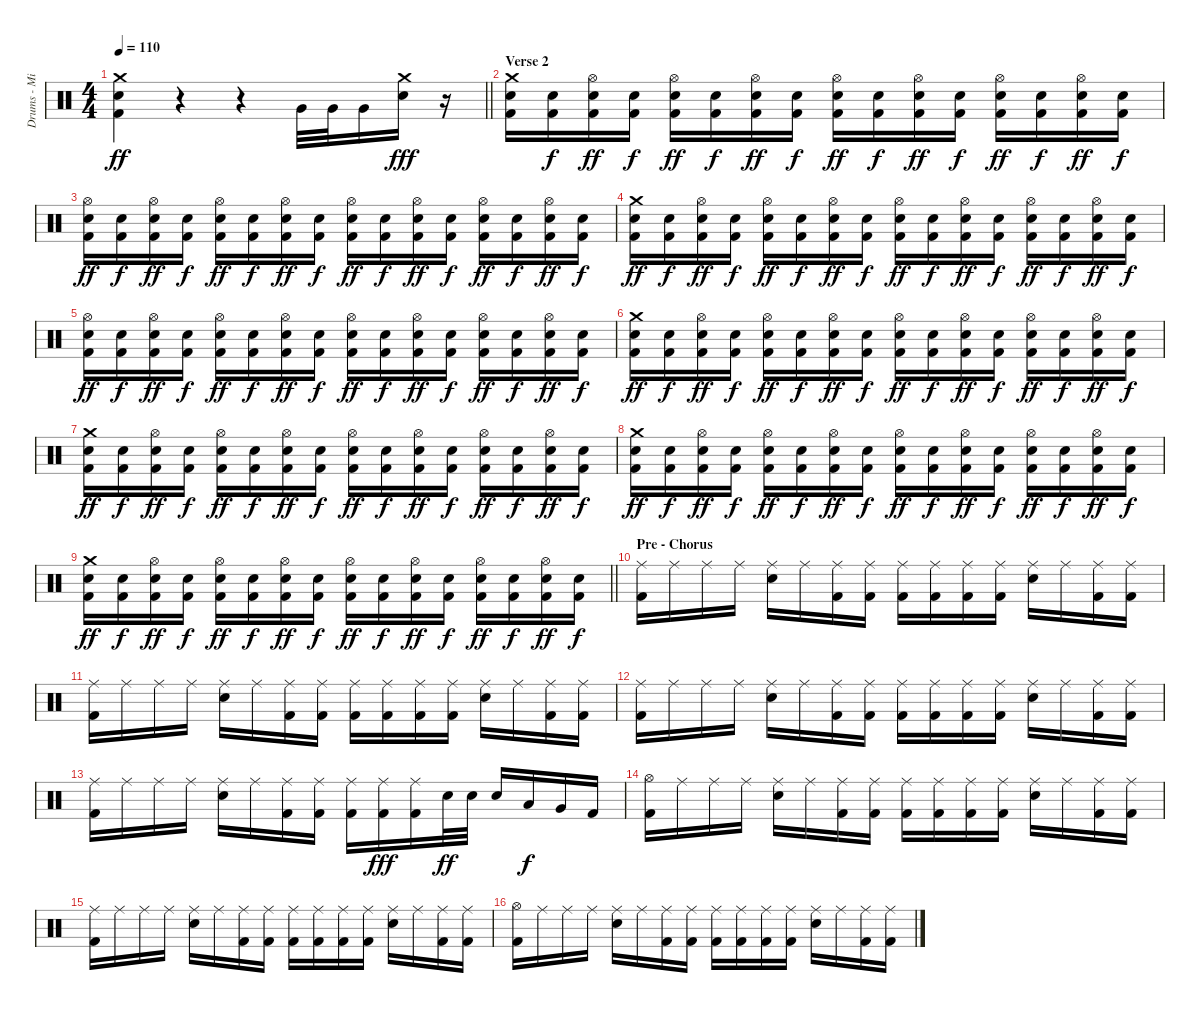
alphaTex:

\track ("Drums - Mikko" "Drums - Mi") {instrument percussion}
\staff {score}
\articulation defaults
\ts (4 4)
\tempo 110
\clef neutral
\barLineRight lightlight
\ks c
("Crash medium (hit)" "Snare (hit) 2" "Kick (hit) 2").4{dy ff} r.4 r.4 "Very Low Tom (hit)".32 "Very Low Tom (hit)".32 "Very Low Tom (hit)".16 ("Crash medium (hit)" "Snare (hit) 2").16{dy fff} r.16 |
\section ("" "Verse 2")
("Crash medium (hit)" "Snare (hit) 2" "Kick (hit) 2").16{volume 11} ("Snare (hit) 2" "Kick (hit) 2").16{dy f} ("Hi-Hat (open)" "Snare (hit) 2" "Kick (hit) 2").16{dy ff} ("Snare (hit) 2" "Kick (hit) 2").16{dy f} ("Hi-Hat (open)" "Snare (hit) 2" "Kick (hit) 2").16{dy ff} ("Snare (hit) 2" "Kick (hit) 2").16{dy f} ("Hi-Hat (open)" "Snare (hit) 2" "Kick (hit) 2").16{dy ff} ("Snare (hit) 2" "Kick (hit) 2").16{dy f} ("Hi-Hat (open)" "Snare (hit) 2" "Kick (hit) 2").16{dy ff} ("Snare (hit) 2" "Kick (hit) 2").16{dy f} ("Hi-Hat (open)" "Snare (hit) 2" "Kick (hit) 2").16{dy ff} ("Snare (hit) 2" "Kick (hit) 2").16{dy f} ("Hi-Hat (open)" "Snare (hit) 2" "Kick (hit) 2").16{dy ff} ("Snare (hit) 2" "Kick (hit) 2").16{dy f} ("Hi-Hat (open)" "Snare (hit) 2" "Kick (hit) 2").16{dy ff} ("Snare (hit) 2" "Kick (hit) 2").16{dy f} |
("Hi-Hat (open)" "Snare (hit) 2" "Kick (hit) 2").16{dy ff volume 11} ("Snare (hit) 2" "Kick (hit) 2").16{dy f} ("Hi-Hat (open)" "Snare (hit) 2" "Kick (hit) 2").16{dy ff} ("Snare (hit) 2" "Kick (hit) 2").16{dy f} ("Hi-Hat (open)" "Snare (hit) 2" "Kick (hit) 2").16{dy ff} ("Snare (hit) 2" "Kick (hit) 2").16{dy f} ("Hi-Hat (open)" "Snare (hit) 2" "Kick (hit) 2").16{dy ff} ("Snare (hit) 2" "Kick (hit) 2").16{dy f} ("Hi-Hat (open)" "Snare (hit) 2" "Kick (hit) 2").16{dy ff} ("Snare (hit) 2" "Kick (hit) 2").16{dy f} ("Hi-Hat (open)" "Snare (hit) 2" "Kick (hit) 2").16{dy ff} ("Snare (hit) 2" "Kick (hit) 2").16{dy f} ("Hi-Hat (open)" "Snare (hit) 2" "Kick (hit) 2").16{dy ff} ("Snare (hit) 2" "Kick (hit) 2").16{dy f} ("Hi-Hat (open)" "Snare (hit) 2" "Kick (hit) 2").16{dy ff} ("Snare (hit) 2" "Kick (hit) 2").16{dy f} |
("Crash medium (hit)" "Snare (hit) 2" "Kick (hit) 2").16{dy ff volume 11} ("Snare (hit) 2" "Kick (hit) 2").16{dy f} ("Hi-Hat (open)" "Snare (hit) 2" "Kick (hit) 2").16{dy ff} ("Snare (hit) 2" "Kick (hit) 2").16{dy f} ("Hi-Hat (open)" "Snare (hit) 2" "Kick (hit) 2").16{dy ff} ("Snare (hit) 2" "Kick (hit) 2").16{dy f} ("Hi-Hat (open)" "Snare (hit) 2" "Kick (hit) 2").16{dy ff} ("Snare (hit) 2" "Kick (hit) 2").16{dy f} ("Hi-Hat (open)" "Snare (hit) 2" "Kick (hit) 2").16{dy ff} ("Snare (hit) 2" "Kick (hit) 2").16{dy f} ("Hi-Hat (open)" "Snare (hit) 2" "Kick (hit) 2").16{dy ff} ("Snare (hit) 2" "Kick (hit) 2").16{dy f} ("Hi-Hat (open)" "Snare (hit) 2" "Kick (hit) 2").16{dy ff} ("Snare (hit) 2" "Kick (hit) 2").16{dy f} ("Hi-Hat (open)" "Snare (hit) 2" "Kick (hit) 2").16{dy ff} ("Snare (hit) 2" "Kick (hit) 2").16{dy f} |
("Hi-Hat (open)" "Snare (hit) 2" "Kick (hit) 2").16{dy ff volume 11} ("Snare (hit) 2" "Kick (hit) 2").16{dy f} ("Hi-Hat (open)" "Snare (hit) 2" "Kick (hit) 2").16{dy ff} ("Snare (hit) 2" "Kick (hit) 2").16{dy f} ("Hi-Hat (open)" "Snare (hit) 2" "Kick (hit) 2").16{dy ff} ("Snare (hit) 2" "Kick (hit) 2").16{dy f} ("Hi-Hat (open)" "Snare (hit) 2" "Kick (hit) 2").16{dy ff} ("Snare (hit) 2" "Kick (hit) 2").16{dy f} ("Hi-Hat (open)" "Snare (hit) 2" "Kick (hit) 2").16{dy ff} ("Snare (hit) 2" "Kick (hit) 2").16{dy f} ("Hi-Hat (open)" "Snare (hit) 2" "Kick (hit) 2").16{dy ff} ("Snare (hit) 2" "Kick (hit) 2").16{dy f} ("Hi-Hat (open)" "Snare (hit) 2" "Kick (hit) 2").16{dy ff} ("Snare (hit) 2" "Kick (hit) 2").16{dy f} ("Hi-Hat (open)" "Snare (hit) 2" "Kick (hit) 2").16{dy ff} ("Snare (hit) 2" "Kick (hit) 2").16{dy f} |
("Crash medium (hit)" "Snare (hit) 2" "Kick (hit) 2").16{dy ff volume 11} ("Snare (hit) 2" "Kick (hit) 2").16{dy f} ("Hi-Hat (open)" "Snare (hit) 2" "Kick (hit) 2").16{dy ff} ("Snare (hit) 2" "Kick (hit) 2").16{dy f} ("Hi-Hat (open)" "Snare (hit) 2" "Kick (hit) 2").16{dy ff} ("Snare (hit) 2" "Kick (hit) 2").16{dy f} ("Hi-Hat (open)" "Snare (hit) 2" "Kick (hit) 2").16{dy ff} ("Snare (hit) 2" "Kick (hit) 2").16{dy f} ("Hi-Hat (open)" "Snare (hit) 2" "Kick (hit) 2").16{dy ff} ("Snare (hit) 2" "Kick (hit) 2").16{dy f} ("Hi-Hat (open)" "Snare (hit) 2" "Kick (hit) 2").16{dy ff} ("Snare (hit) 2" "Kick (hit) 2").16{dy f} ("Hi-Hat (open)" "Snare (hit) 2" "Kick (hit) 2").16{dy ff} ("Snare (hit) 2" "Kick (hit) 2").16{dy f} ("Hi-Hat (open)" "Snare (hit) 2" "Kick (hit) 2").16{dy ff} ("Snare (hit) 2" "Kick (hit) 2").16{dy f} |
("Crash medium (hit)" "Snare (hit) 2" "Kick (hit) 2").16{dy ff volume 11} ("Snare (hit) 2" "Kick (hit) 2").16{dy f} ("Hi-Hat (open)" "Snare (hit) 2" "Kick (hit) 2").16{dy ff} ("Snare (hit) 2" "Kick (hit) 2").16{dy f} ("Hi-Hat (open)" "Snare (hit) 2" "Kick (hit) 2").16{dy ff} ("Snare (hit) 2" "Kick (hit) 2").16{dy f} ("Hi-Hat (open)" "Snare (hit) 2" "Kick (hit) 2").16{dy ff} ("Snare (hit) 2" "Kick (hit) 2").16{dy f} ("Hi-Hat (open)" "Snare (hit) 2" "Kick (hit) 2").16{dy ff} ("Snare (hit) 2" "Kick (hit) 2").16{dy f} ("Hi-Hat (open)" "Snare (hit) 2" "Kick (hit) 2").16{dy ff} ("Snare (hit) 2" "Kick (hit) 2").16{dy f} ("Hi-Hat (open)" "Snare (hit) 2" "Kick (hit) 2").16{dy ff} ("Snare (hit) 2" "Kick (hit) 2").16{dy f} ("Hi-Hat (open)" "Snare (hit) 2" "Kick (hit) 2").16{dy ff} ("Snare (hit) 2" "Kick (hit) 2").16{dy f} |
("Crash medium (hit)" "Snare (hit) 2" "Kick (hit) 2").16{dy ff volume 11} ("Snare (hit) 2" "Kick (hit) 2").16{dy f} ("Hi-Hat (open)" "Snare (hit) 2" "Kick (hit) 2").16{dy ff} ("Snare (hit) 2" "Kick (hit) 2").16{dy f} ("Hi-Hat (open)" "Snare (hit) 2" "Kick (hit) 2").16{dy ff} ("Snare (hit) 2" "Kick (hit) 2").16{dy f} ("Hi-Hat (open)" "Snare (hit) 2" "Kick (hit) 2").16{dy ff} ("Snare (hit) 2" "Kick (hit) 2").16{dy f} ("Hi-Hat (open)" "Snare (hit) 2" "Kick (hit) 2").16{dy ff} ("Snare (hit) 2" "Kick (hit) 2").16{dy f} ("Hi-Hat (open)" "Snare (hit) 2" "Kick (hit) 2").16{dy ff} ("Snare (hit) 2" "Kick (hit) 2").16{dy f} ("Hi-Hat (open)" "Snare (hit) 2" "Kick (hit) 2").16{dy ff} ("Snare (hit) 2" "Kick (hit) 2").16{dy f} ("Hi-Hat (open)" "Snare (hit) 2" "Kick (hit) 2").16{dy ff} ("Snare (hit) 2" "Kick (hit) 2").16{dy f} |
\barLineRight lightlight
("Crash medium (hit)" "Snare (hit) 2" "Kick (hit) 2").16{dy ff volume 11} ("Snare (hit) 2" "Kick (hit) 2").16{dy f} ("Hi-Hat (open)" "Snare (hit) 2" "Kick (hit) 2").16{dy ff} ("Snare (hit) 2" "Kick (hit) 2").16{dy f} ("Hi-Hat (open)" "Snare (hit) 2" "Kick (hit) 2").16{dy ff} ("Snare (hit) 2" "Kick (hit) 2").16{dy f} ("Hi-Hat (open)" "Snare (hit) 2" "Kick (hit) 2").16{dy ff} ("Snare (hit) 2" "Kick (hit) 2").16{dy f} ("Hi-Hat (open)" "Snare (hit) 2" "Kick (hit) 2").16{dy ff} ("Snare (hit) 2" "Kick (hit) 2").16{dy f} ("Hi-Hat (open)" "Snare (hit) 2" "Kick (hit) 2").16{dy ff} ("Snare (hit) 2" "Kick (hit) 2").16{dy f} ("Hi-Hat (open)" "Snare (hit) 2" "Kick (hit) 2").16{dy ff} ("Snare (hit) 2" "Kick (hit) 2").16{dy f} ("Hi-Hat (open)" "Snare (hit) 2" "Kick (hit) 2").16{dy ff} ("Snare (hit) 2" "Kick (hit) 2").16{dy f} |
\section ("" "Pre - Chorus")
("Ride (middle)" "Kick (hit) 2").16{volume 13} "Ride (middle)".16 "Ride (middle)".16 "Ride (middle)".16 ("Ride (middle)" "Snare (hit) 2").16 "Ride (middle)".16 ("Ride (middle)" "Kick (hit) 2").16 ("Ride (middle)" "Kick (hit) 2").16 ("Ride (middle)" "Kick (hit) 2").16 ("Ride (middle)" "Kick (hit) 2").16 ("Ride (middle)" "Kick (hit) 2").16 ("Ride (middle)" "Kick (hit) 2").16 ("Ride (middle)" "Snare (hit) 2").16 "Ride (middle)".16 ("Ride (middle)" "Kick (hit) 2").16 ("Ride (middle)" "Kick (hit) 2").16 |
("Ride (middle)" "Kick (hit) 2").16{volume 13} "Ride (middle)".16 "Ride (middle)".16 "Ride (middle)".16 ("Ride (middle)" "Snare (hit) 2").16 "Ride (middle)".16 ("Ride (middle)" "Kick (hit) 2").16 ("Ride (middle)" "Kick (hit) 2").16 ("Ride (middle)" "Kick (hit) 2").16 ("Ride (middle)" "Kick (hit) 2").16 ("Ride (middle)" "Kick (hit) 2").16 ("Ride (middle)" "Kick (hit) 2").16 ("Ride (middle)" "Snare (hit) 2").16 "Ride (middle)".16 ("Ride (middle)" "Kick (hit) 2").16 ("Ride (middle)" "Kick (hit) 2").16 |
("Ride (middle)" "Kick (hit) 2").16{volume 13} "Ride (middle)".16 "Ride (middle)".16 "Ride (middle)".16 ("Ride (middle)" "Snare (hit) 2").16 "Ride (middle)".16 ("Ride (middle)" "Kick (hit) 2").16 ("Ride (middle)" "Kick (hit) 2").16 ("Ride (middle)" "Kick (hit) 2").16 ("Ride (middle)" "Kick (hit) 2").16 ("Ride (middle)" "Kick (hit) 2").16 ("Ride (middle)" "Kick (hit) 2").16 ("Ride (middle)" "Snare (hit) 2").16 "Ride (middle)".16 ("Ride (middle)" "Kick (hit) 2").16 ("Ride (middle)" "Kick (hit) 2").16 |
("Ride (middle)" "Kick (hit) 2").16{volume 13} "Ride (middle)".16 "Ride (middle)".16 "Ride (middle)".16 ("Ride (middle)" "Snare (hit) 2").16 "Ride (middle)".16 ("Ride (middle)" "Kick (hit) 2").16 ("Ride (middle)" "Kick (hit) 2").16 ("Ride (middle)" "Kick (hit) 2").16 ("Ride (middle)" "Kick (hit) 2").16{dy fff} ("Ride (middle)" "Kick (hit) 2").16 "Snare (hit) 2".32{dy ff} "Snare (hit) 2".32 "Snare (hit) 2".16 "Low Tom (hit)".16{dy f} "Very Low Tom (hit)".16 "Kick (hit) 2".16 |
("Hi-Hat (open)" "Kick (hit) 2").16{volume 13} "Ride (middle)".16 "Ride (middle)".16 "Ride (middle)".16 ("Ride (middle)" "Snare (hit) 2").16 "Ride (middle)".16 ("Ride (middle)" "Kick (hit) 2").16 ("Ride (middle)" "Kick (hit) 2").16 ("Ride (middle)" "Kick (hit) 2").16 ("Ride (middle)" "Kick (hit) 2").16 ("Ride (middle)" "Kick (hit) 2").16 ("Ride (middle)" "Kick (hit) 2").16 ("Ride (middle)" "Snare (hit) 2").16 "Ride (middle)".16 ("Ride (middle)" "Kick (hit) 2").16 ("Ride (middle)" "Kick (hit) 2").16 |
("Ride (middle)" "Kick (hit) 2").16{volume 13} "Ride (middle)".16 "Ride (middle)".16 "Ride (middle)".16 ("Ride (middle)" "Snare (hit) 2").16 "Ride (middle)".16 ("Ride (middle)" "Kick (hit) 2").16 ("Ride (middle)" "Kick (hit) 2").16 ("Ride (middle)" "Kick (hit) 2").16 ("Ride (middle)" "Kick (hit) 2").16 ("Ride (middle)" "Kick (hit) 2").16 ("Ride (middle)" "Kick (hit) 2").16 ("Ride (middle)" "Snare (hit) 2").16 "Ride (middle)".16 ("Ride (middle)" "Kick (hit) 2").16 ("Ride (middle)" "Kick (hit) 2").16 |
("Hi-Hat (open)" "Kick (hit) 2").16{volume 13} "Ride (middle)".16 "Ride (middle)".16 "Ride (middle)".16 ("Ride (middle)" "Snare (hit) 2").16 "Ride (middle)".16 ("Ride (middle)" "Kick (hit) 2").16 ("Ride (middle)" "Kick (hit) 2").16 ("Ride (middle)" "Kick (hit) 2").16 ("Ride (middle)" "Kick (hit) 2").16 ("Ride (middle)" "Kick (hit) 2").16 ("Ride (middle)" "Kick (hit) 2").16 ("Ride (middle)" "Snare (hit) 2").16 "Ride (middle)".16 ("Ride (middle)" "Kick (hit) 2").16 ("Ride (middle)" "Kick (hit) 2").16
